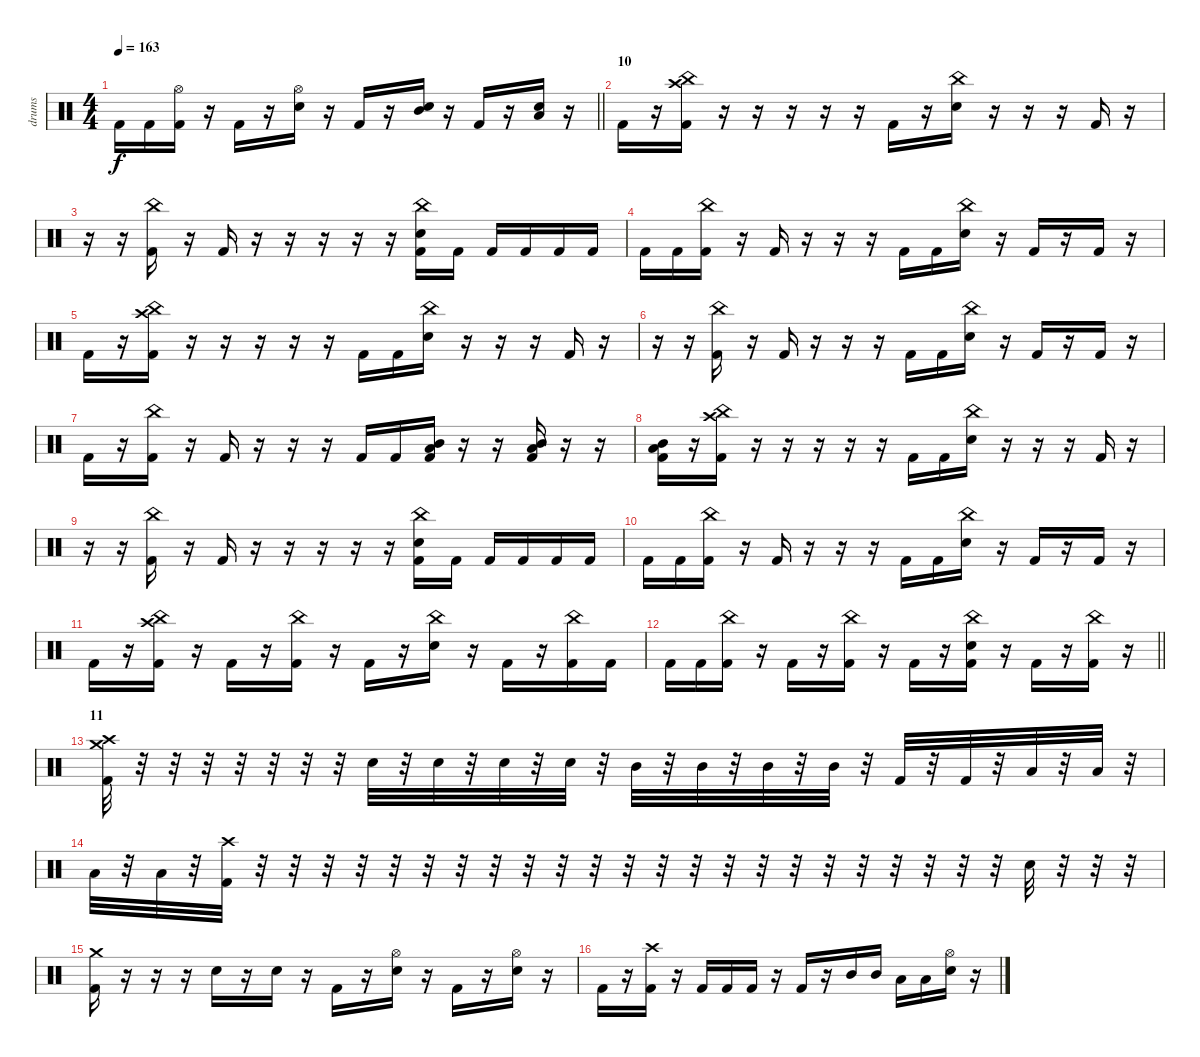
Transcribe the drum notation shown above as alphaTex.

\track ("drums" "drums") {instrument percussion}
\staff {score}
\articulation defaults
\ts (4 4)
\tempo 163
\clef neutral
\barLineRight lightlight
\ks c "Kick (hit) 2".16{dy f} "Kick (hit) 2".16
("Hi-Hat (open)" "Kick (hit) 2").16 r.16 "Kick (hit) 2".16 r.16 ("Hi-Hat (open)" "Electric Snare (hit)").16 r.16 "Kick (hit) 2".16 r.16 ("Mid Tom (hit)" "Electric Snare (hit)").16 r.16 "Kick (hit) 2".16 r.16 ("Low Floor Tom (hit)" "Electric Snare (hit)").16 r.16 |
\section ("" "10")
"Kick (hit) 2".16 r.16 ("China (hit)" "Crash high (hit)" "Kick (hit) 2").16 r.16 r.16 r.16 r.16 r.16 "Kick (hit) 2".16 r.16 ("China (hit)" "Electric Snare (hit)").16 r.16 r.16 r.16 "Kick (hit) 2".16 r.16 |
r.16 r.16 ("China (hit)" "Kick (hit) 2").16 r.16 "Kick (hit) 2".16 r.16 r.16 r.16 r.16 r.16 ("China (hit)" "Electric Snare (hit)" "Kick (hit) 2").16 "Kick (hit) 2".16 "Kick (hit) 2".16 "Kick (hit) 2".16 "Kick (hit) 2".16 "Kick (hit) 2".16 |
"Kick (hit) 2".16 "Kick (hit) 2".16 ("China (hit)" "Kick (hit) 2").16 r.16 "Kick (hit) 2".16 r.16 r.16 r.16 "Kick (hit) 2".16 "Kick (hit) 2".16 ("China (hit)" "Electric Snare (hit)").16 r.16 "Kick (hit) 2".16 r.16 "Kick (hit) 2".16 r.16 |
"Kick (hit) 2".16 r.16 ("China (hit)" "Crash high (hit)" "Kick (hit) 2").16 r.16 r.16 r.16 r.16 r.16 "Kick (hit) 2".16 "Kick (hit) 2".16 ("China (hit)" "Electric Snare (hit)").16 r.16 r.16 r.16 "Kick (hit) 2".16 r.16 |
r.16 r.16 ("China (hit)" "Kick (hit) 2").16 r.16 "Kick (hit) 2".16 r.16 r.16 r.16 "Kick (hit) 2".16 "Kick (hit) 2".16 ("China (hit)" "Electric Snare (hit)").16 r.16 "Kick (hit) 2".16 r.16 "Kick (hit) 2".16 r.16 |
"Kick (hit) 2".16 r.16 ("China (hit)" "Kick (hit) 2").16 r.16 "Kick (hit) 2".16 r.16 r.16 r.16 "Kick (hit) 2".16 "Kick (hit) 2".16 ("Mid Tom (hit)" "Low Floor Tom (hit)" "Kick (hit) 2").16 r.16 r.16 ("Mid Tom (hit)" "Low Floor Tom (hit)" "Kick (hit) 2").16 r.16 r.16 |
("Mid Tom (hit)" "Low Floor Tom (hit)" "Kick (hit) 2").16 r.16 ("China (hit)" "Crash high (hit)" "Kick (hit) 2").16 r.16 r.16 r.16 r.16 r.16 "Kick (hit) 2".16 "Kick (hit) 2".16 ("China (hit)" "Electric Snare (hit)").16 r.16 r.16 r.16 "Kick (hit) 2".16 r.16 |
r.16 r.16 ("China (hit)" "Kick (hit) 2").16 r.16 "Kick (hit) 2".16 r.16 r.16 r.16 r.16 r.16 ("China (hit)" "Electric Snare (hit)" "Kick (hit) 2").16 "Kick (hit) 2".16 "Kick (hit) 2".16 "Kick (hit) 2".16 "Kick (hit) 2".16 "Kick (hit) 2".16 |
"Kick (hit) 2".16 "Kick (hit) 2".16 ("China (hit)" "Kick (hit) 2").16 r.16 "Kick (hit) 2".16 r.16 r.16 r.16 "Kick (hit) 2".16 "Kick (hit) 2".16 ("China (hit)" "Electric Snare (hit)").16 r.16 "Kick (hit) 2".16 r.16 "Kick (hit) 2".16 r.16 |
"Kick (hit) 2".16 r.16 ("China (hit)" "Crash high (hit)" "Kick (hit) 2").16 r.16 "Kick (hit) 2".16 r.16 ("China (hit)" "Kick (hit) 2").16 r.16 "Kick (hit) 2".16 r.16 ("China (hit)" "Electric Snare (hit)").16 r.16 "Kick (hit) 2".16 r.16 ("China (hit)" "Kick (hit) 2").16 "Kick (hit) 2".16 |
\barLineRight lightlight "Kick (hit) 2".16 "Kick (hit) 2".16
("China (hit)" "Kick (hit) 2").16 r.16 "Kick (hit) 2".16 r.16 ("China (hit)" "Kick (hit) 2").16 r.16 "Kick (hit) 2".16 r.16 ("China (hit)" "Electric Snare (hit)" "Kick (hit) 2").16 r.16 "Kick (hit) 2".16 r.16 ("China (hit)" "Kick (hit) 2").16 r.16 |
\section ("" "11")
("Crash medium (hit)" "Crash high (hit)" "Kick (hit) 2").32 r.32 r.32 r.32 r.32 r.32 r.32 r.32 "Electric Snare (hit)".32 r.32 "Electric Snare (hit)".32 r.32 "Electric Snare (hit)".32 r.32 "Electric Snare (hit)".32 r.32 "Mid Tom (hit)".32 r.32 "Mid Tom (hit)".32 r.32 "Mid Tom (hit)".32 r.32 "Mid Tom (hit)".32 r.32 "Kick (hit) 2".32 r.32 "Kick (hit) 2".32 r.32 "Low Floor Tom (hit)".32 r.32 "Low Floor Tom (hit)".32 r.32 |
"Low Floor Tom (hit)".32 r.32 "Low Floor Tom (hit)".32 r.32 ("Crash high (hit)" "Kick (hit) 2").32 r.32 r.32 r.32 r.32 r.32 r.32 r.32 r.32 r.32 r.32 r.32 r.32 r.32 r.32 r.32 r.32 r.32 r.32 r.32 r.32 r.32 r.32 r.32 "Electric Snare (hit)".32 r.32 r.32 r.32 |
("Crash medium (hit)" "Kick (hit) 2").16 r.16 r.16 r.16 "Electric Snare (hit)".16 r.16 "Electric Snare (hit)".16 r.16 "Kick (hit) 2".16 r.16 ("Hi-Hat (open)" "Electric Snare (hit)").16 r.16 "Kick (hit) 2".16 r.16 ("Hi-Hat (open)" "Electric Snare (hit)").16 r.16 |
"Kick (hit) 2".16 r.16 ("Crash high (hit)" "Kick (hit) 2").16 r.16 "Kick (hit) 2".16 "Kick (hit) 2".16 "Kick (hit) 2".16 r.16 "Kick (hit) 2".16 r.16 "Mid Tom (hit)".16 "Mid Tom (hit)".16 "Low Floor Tom (hit)".16 "Low Floor Tom (hit)".16 ("Hi-Hat (open)" "Electric Snare (hit)").16 r.16
